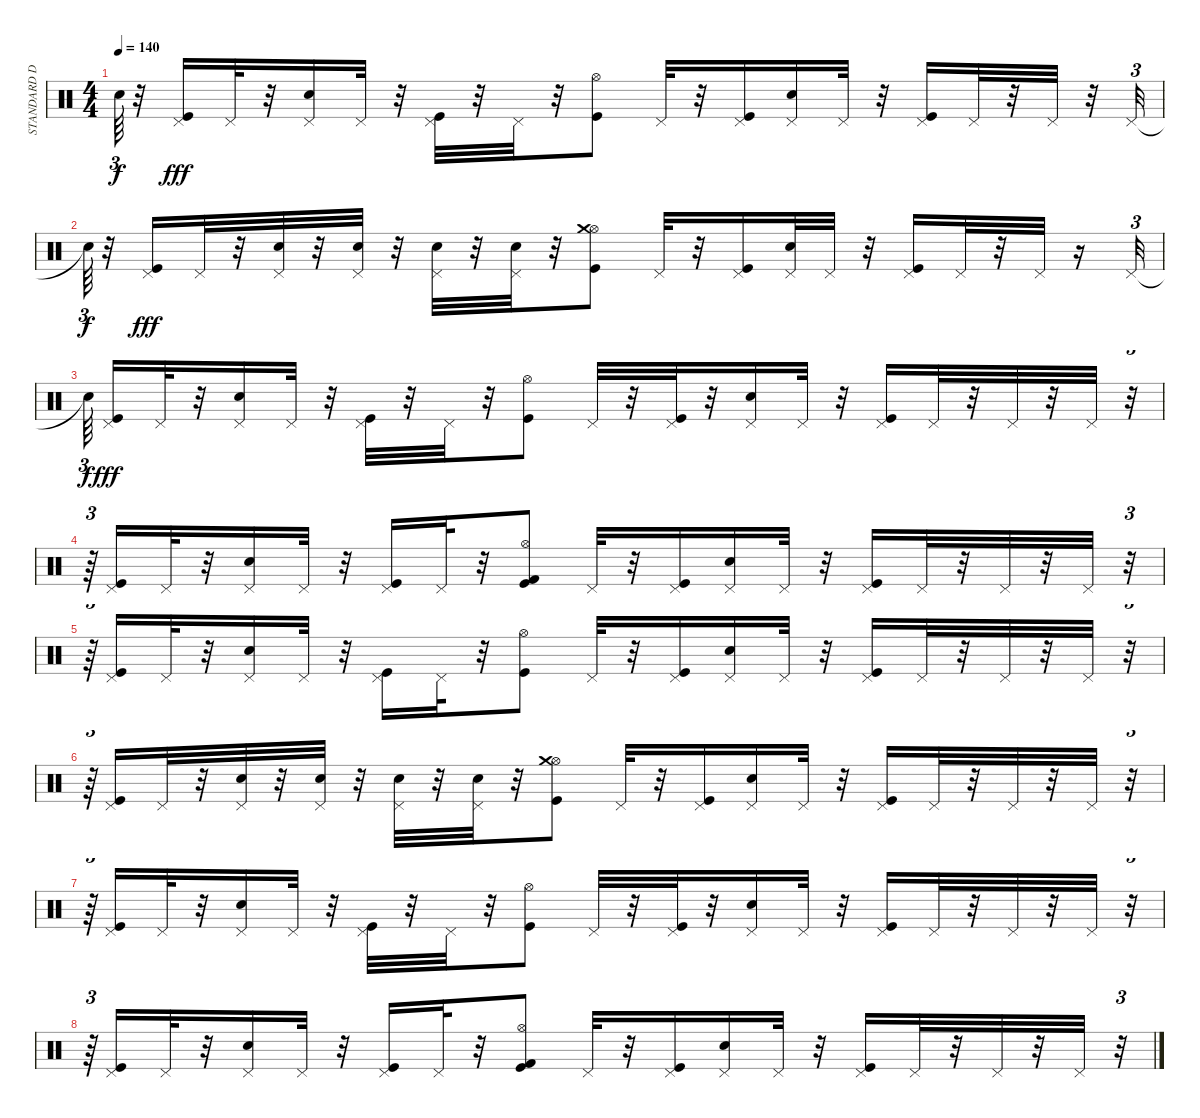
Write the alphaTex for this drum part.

\track ("STANDARD DRUMS" "STANDARD D") {instrument percussion}
\staff {score}
\articulation defaults
\ts (4 4)
\tempo 140
\clef neutral
\ks c "Snare (hit)"{t}.64{tu (3 2) dy f}
r.32 ("Kick (hit)" "Pedal Hi-Hat (hit)").16{dy fff} "Pedal Hi-Hat (hit)".32 r.32 ("Snare (hit) 2" "Pedal Hi-Hat (hit)").16 "Pedal Hi-Hat (hit)".32 r.32 ("Kick (hit)" "Pedal Hi-Hat (hit)").32 r.32 "Pedal Hi-Hat (hit)".32 r.32 ("Kick (hit)" "Hi-Hat (open)").8 "Pedal Hi-Hat (hit)".32 r.32 ("Kick (hit)" "Pedal Hi-Hat (hit)").16 ("Snare (hit) 2" "Pedal Hi-Hat (hit)").16 "Pedal Hi-Hat (hit)".32 r.32 ("Kick (hit)" "Pedal Hi-Hat (hit)").16 "Pedal Hi-Hat (hit)".32 r.32 "Pedal Hi-Hat (hit)".32 r.32 "Pedal Hi-Hat (hit)".32{tu (3 2)} |
"Snare (hit)"{t}.64{tu (3 2) dy f} r.32 ("Kick (hit)" "Pedal Hi-Hat (hit)").16{dy fff} "Pedal Hi-Hat (hit)".32 r.32 ("Snare (hit) 2" "Pedal Hi-Hat (hit)").32 r.32 ("Snare (hit) 2" "Pedal Hi-Hat (hit)").32 r.32 ("Snare (hit) 2" "Pedal Hi-Hat (hit)").32 r.32 ("Snare (hit) 2" "Pedal Hi-Hat (hit)").32 r.32 ("Kick (hit)" "Hi-Hat (open)" "Crash medium (hit)").8 "Pedal Hi-Hat (hit)".32 r.32 ("Kick (hit)" "Pedal Hi-Hat (hit)").16 ("Snare (hit) 2" "Pedal Hi-Hat (hit)").32 "Pedal Hi-Hat (hit)".32 r.32 ("Kick (hit)" "Pedal Hi-Hat (hit)").16 "Pedal Hi-Hat (hit)".32 r.32 "Pedal Hi-Hat (hit)".32 r.16 "Pedal Hi-Hat (hit)".32{tu (3 2)} |
"Snare (hit)"{t}.64{tu (3 2) dy f beam splitsecondary} ("Kick (hit)" "Pedal Hi-Hat (hit)").16{dy fff} "Pedal Hi-Hat (hit)".32 r.32 ("Snare (hit) 2" "Pedal Hi-Hat (hit)").16 "Pedal Hi-Hat (hit)".32 r.32 ("Kick (hit)" "Pedal Hi-Hat (hit)").32 r.32 "Pedal Hi-Hat (hit)".32 r.32 ("Kick (hit)" "Hi-Hat (open)").8 "Pedal Hi-Hat (hit)".32 r.32 ("Kick (hit)" "Pedal Hi-Hat (hit)").32 r.32 ("Snare (hit) 2" "Pedal Hi-Hat (hit)").16 "Pedal Hi-Hat (hit)".32 r.32 ("Kick (hit)" "Pedal Hi-Hat (hit)").16 "Pedal Hi-Hat (hit)".32 r.32 "Pedal Hi-Hat (hit)".32 r.32 "Pedal Hi-Hat (hit)".32 r.32{tu (3 2)} |
r.64{tu (3 2)} ("Kick (hit)" "Pedal Hi-Hat (hit)").16 "Pedal Hi-Hat (hit)".32 r.32 ("Snare (hit) 2" "Pedal Hi-Hat (hit)").16 "Pedal Hi-Hat (hit)".32 r.32 ("Kick (hit)" "Pedal Hi-Hat (hit)").16 "Pedal Hi-Hat (hit)".32 r.32 ("Kick (hit)" "Kick (hit) 2" "Hi-Hat (open)").8 "Pedal Hi-Hat (hit)".32 r.32 ("Kick (hit)" "Pedal Hi-Hat (hit)").16 ("Snare (hit) 2" "Pedal Hi-Hat (hit)").16 "Pedal Hi-Hat (hit)".32 r.32 ("Kick (hit)" "Pedal Hi-Hat (hit)").16 "Pedal Hi-Hat (hit)".32 r.32 "Pedal Hi-Hat (hit)".32 r.32 "Pedal Hi-Hat (hit)".32 r.32{tu (3 2)} |
r.64{tu (3 2)} ("Kick (hit)" "Pedal Hi-Hat (hit)").16 "Pedal Hi-Hat (hit)".32 r.32 ("Snare (hit) 2" "Pedal Hi-Hat (hit)").16 "Pedal Hi-Hat (hit)".32 r.32 ("Kick (hit)" "Pedal Hi-Hat (hit)").16 "Pedal Hi-Hat (hit)".32 r.32 ("Kick (hit)" "Hi-Hat (open)").8 "Pedal Hi-Hat (hit)".32 r.32 ("Kick (hit)" "Pedal Hi-Hat (hit)").16 ("Snare (hit) 2" "Pedal Hi-Hat (hit)").16 "Pedal Hi-Hat (hit)".32 r.32 ("Kick (hit)" "Pedal Hi-Hat (hit)").16 "Pedal Hi-Hat (hit)".32 r.32 "Pedal Hi-Hat (hit)".32 r.32 "Pedal Hi-Hat (hit)".32 r.32{tu (3 2)} |
r.64{tu (3 2)} ("Kick (hit)" "Pedal Hi-Hat (hit)").16 "Pedal Hi-Hat (hit)".32 r.32 ("Snare (hit) 2" "Pedal Hi-Hat (hit)").32 r.32 ("Snare (hit) 2" "Pedal Hi-Hat (hit)").32 r.32 ("Snare (hit) 2" "Pedal Hi-Hat (hit)").32 r.32 ("Snare (hit) 2" "Pedal Hi-Hat (hit)").32 r.32 ("Kick (hit)" "Hi-Hat (open)" "Crash medium (hit)").8 "Pedal Hi-Hat (hit)".32 r.32 ("Kick (hit)" "Pedal Hi-Hat (hit)").16 ("Snare (hit) 2" "Pedal Hi-Hat (hit)").16 "Pedal Hi-Hat (hit)".32 r.32 ("Kick (hit)" "Pedal Hi-Hat (hit)").16 "Pedal Hi-Hat (hit)".32 r.32 "Pedal Hi-Hat (hit)".32 r.32 "Pedal Hi-Hat (hit)".32 r.32{tu (3 2)} |
r.64{tu (3 2)} ("Kick (hit)" "Pedal Hi-Hat (hit)").16 "Pedal Hi-Hat (hit)".32 r.32 ("Snare (hit) 2" "Pedal Hi-Hat (hit)").16 "Pedal Hi-Hat (hit)".32 r.32 ("Kick (hit)" "Pedal Hi-Hat (hit)").32 r.32 "Pedal Hi-Hat (hit)".32 r.32 ("Kick (hit)" "Hi-Hat (open)").8 "Pedal Hi-Hat (hit)".32 r.32 ("Kick (hit)" "Pedal Hi-Hat (hit)").32 r.32 ("Snare (hit) 2" "Pedal Hi-Hat (hit)").16 "Pedal Hi-Hat (hit)".32 r.32 ("Kick (hit)" "Pedal Hi-Hat (hit)").16 "Pedal Hi-Hat (hit)".32 r.32 "Pedal Hi-Hat (hit)".32 r.32 "Pedal Hi-Hat (hit)".32 r.32{tu (3 2)} |
r.64{tu (3 2)} ("Kick (hit)" "Pedal Hi-Hat (hit)").16 "Pedal Hi-Hat (hit)".32 r.32 ("Snare (hit) 2" "Pedal Hi-Hat (hit)").16 "Pedal Hi-Hat (hit)".32 r.32 ("Kick (hit)" "Pedal Hi-Hat (hit)").16 "Pedal Hi-Hat (hit)".32 r.32 ("Kick (hit)" "Kick (hit) 2" "Hi-Hat (open)").8 "Pedal Hi-Hat (hit)".32 r.32 ("Kick (hit)" "Pedal Hi-Hat (hit)").16 ("Snare (hit) 2" "Pedal Hi-Hat (hit)").16 "Pedal Hi-Hat (hit)".32 r.32 ("Kick (hit)" "Pedal Hi-Hat (hit)").16 "Pedal Hi-Hat (hit)".32 r.32 "Pedal Hi-Hat (hit)".32 r.32 "Pedal Hi-Hat (hit)".32 r.32{tu (3 2)}
